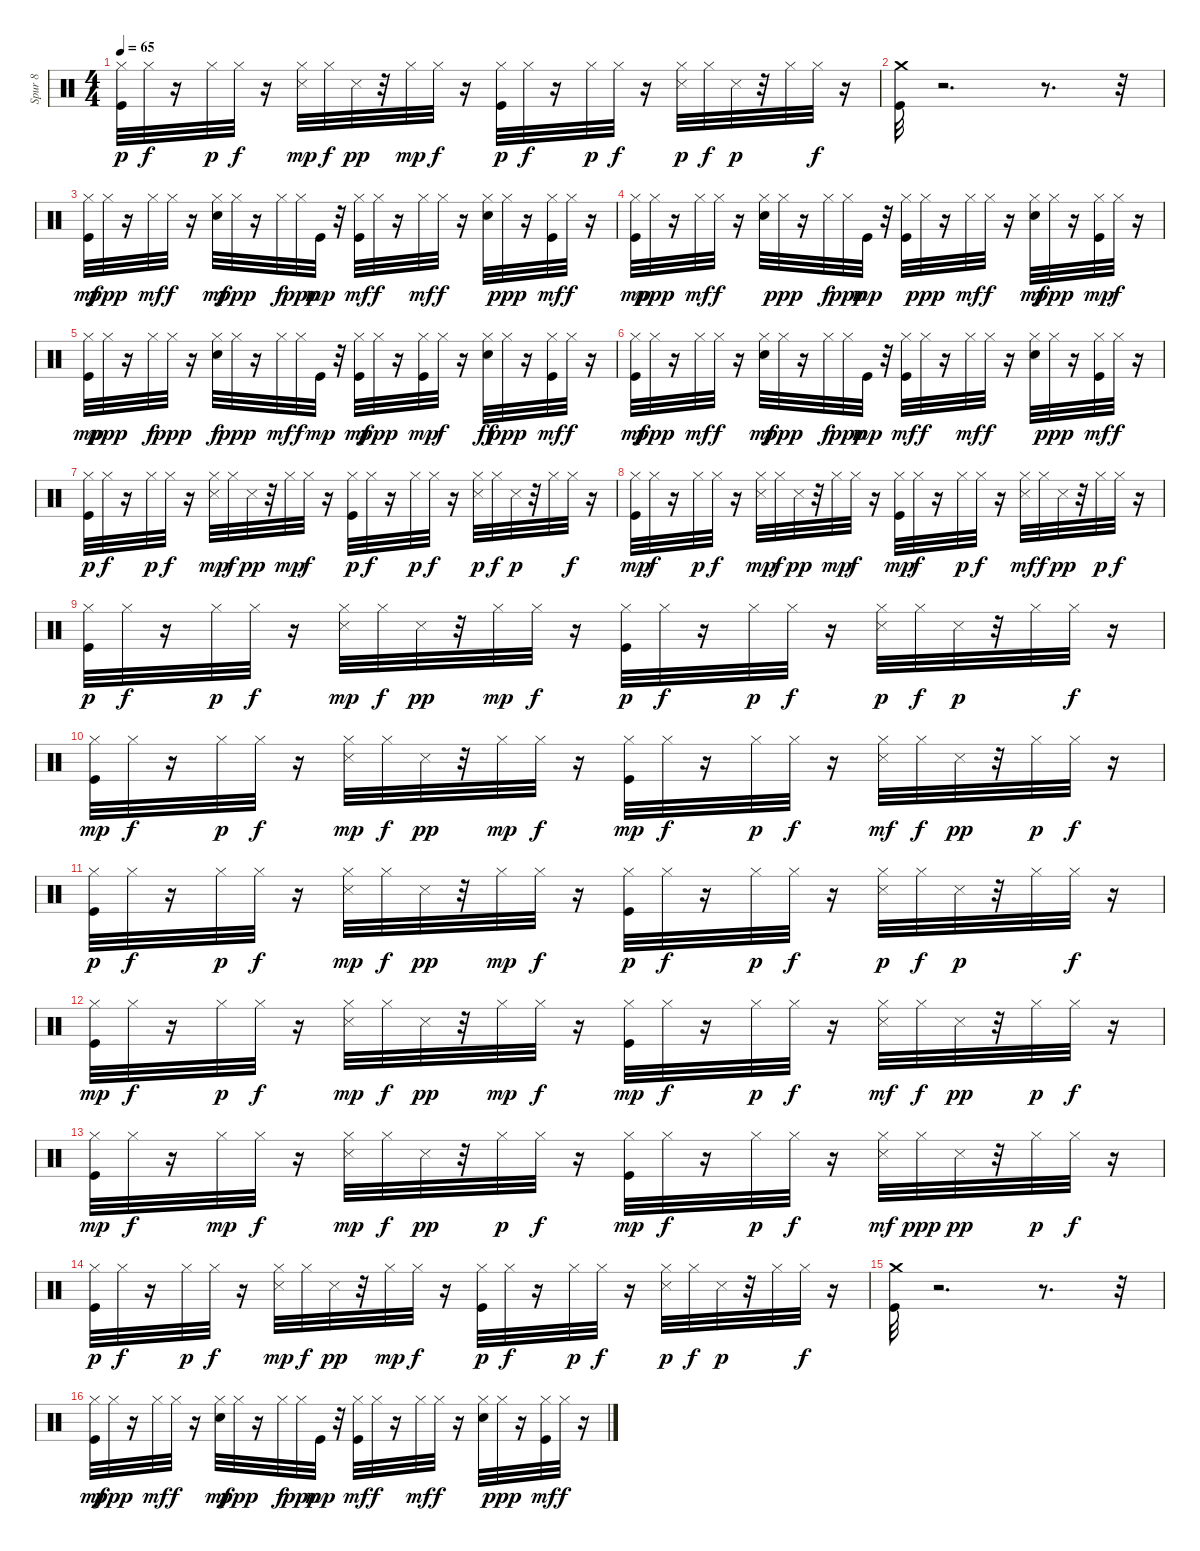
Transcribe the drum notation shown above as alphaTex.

\track ("Spur 8" "Spur 8") {instrument percussion}
\staff {score}
\articulation defaults
\ts (4 4)
\tempo 65
\clef neutral
\ks c
("Kick (hit)" "Hi-Hat (closed)").32{dy p} "Hi-Hat (closed)".32{dy f} r.16 "Hi-Hat (closed)".32{dy p} "Hi-Hat (closed)".32{dy f} r.16 ("Hi-Hat (closed)" "Snare (side stick) 3").32{dy mp} "Hi-Hat (closed)".32{dy f} "Snare (side stick) 3".32{dy pp} r.32 "Hi-Hat (closed)".32{dy mp} "Hi-Hat (closed)".32{dy f} r.16 ("Kick (hit)" "Hi-Hat (closed)").32{dy p} "Hi-Hat (closed)".32{dy f} r.16 "Hi-Hat (closed)".32{dy p} "Hi-Hat (closed)".32{dy f} r.16 ("Hi-Hat (closed)" "Snare (side stick) 3").32{dy p} "Hi-Hat (closed)".32{dy f} "Snare (side stick) 3".32{dy p} r.32 "Hi-Hat (closed)".32 "Hi-Hat (closed)".32{dy f} r.16 |
("Kick (hit)" "Crash medium (hit)").32 r.2{d} r.8{d} r.32 |
("Kick (hit)" "Hi-Hat (closed)").32{dy mf} "Hi-Hat (closed)".32{dy ppp} r.16 "Hi-Hat (closed)".32{dy mf} "Hi-Hat (closed)".32{dy f} r.16 ("Metronome (bell)" "Hi-Hat (closed)").32{dy mf} "Hi-Hat (closed)".32{dy ppp} r.16 "Hi-Hat (closed)".32{dy f} "Hi-Hat (closed)".32{dy ppp} "Kick (hit)".32{dy mp} r.32 ("Kick (hit)" "Hi-Hat (closed)").32{dy mf} "Hi-Hat (closed)".32{dy f} r.16 "Hi-Hat (closed)".32{dy mf} "Hi-Hat (closed)".32{dy f} r.16 ("Metronome (bell)" "Hi-Hat (closed)").32 "Hi-Hat (closed)".32{dy ppp} r.16 ("Kick (hit)" "Hi-Hat (closed)").32{dy mf} "Hi-Hat (closed)".32{dy f} r.16 |
("Kick (hit)" "Hi-Hat (closed)").32{dy mp} "Hi-Hat (closed)".32{dy ppp} r.16 "Hi-Hat (closed)".32{dy mf} "Hi-Hat (closed)".32{dy f} r.16 ("Metronome (bell)" "Hi-Hat (closed)").32 "Hi-Hat (closed)".32{dy ppp} r.16 "Hi-Hat (closed)".32{dy f} "Hi-Hat (closed)".32{dy ppp} "Kick (hit)".32{dy mp} r.32 ("Kick (hit)" "Hi-Hat (closed)").32 "Hi-Hat (closed)".32{dy ppp} r.16 "Hi-Hat (closed)".32{dy mf} "Hi-Hat (closed)".32{dy f} r.16 ("Metronome (bell)" "Hi-Hat (closed)").32{dy mf} "Hi-Hat (closed)".32{dy ppp} r.16 ("Kick (hit)" "Hi-Hat (closed)").32{dy mp} "Hi-Hat (closed)".32{dy f} r.16 |
("Kick (hit)" "Hi-Hat (closed)").32{dy mp} "Hi-Hat (closed)".32{dy ppp} r.16 "Hi-Hat (closed)".32{dy f} "Hi-Hat (closed)".32{dy ppp} r.16 ("Metronome (bell)" "Hi-Hat (closed)").32{dy f} "Hi-Hat (closed)".32{dy ppp} r.16 "Hi-Hat (closed)".32{dy mf} "Hi-Hat (closed)".32{dy f} "Kick (hit)".32{dy mp} r.32 ("Kick (hit)" "Hi-Hat (closed)").32{dy mf} "Hi-Hat (closed)".32{dy ppp} r.16 ("Kick (hit)" "Hi-Hat (closed)").32{dy mp} "Hi-Hat (closed)".32{dy f} r.16 ("Metronome (bell)" "Hi-Hat (closed)").32{dy ff} "Hi-Hat (closed)".32{dy ppp} r.16 ("Kick (hit)" "Hi-Hat (closed)").32{dy mf} "Hi-Hat (closed)".32{dy f} r.16 |
("Kick (hit)" "Hi-Hat (closed)").32{dy mf} "Hi-Hat (closed)".32{dy ppp} r.16 "Hi-Hat (closed)".32{dy mf} "Hi-Hat (closed)".32{dy f} r.16 ("Metronome (bell)" "Hi-Hat (closed)").32{dy mf} "Hi-Hat (closed)".32{dy ppp} r.16 "Hi-Hat (closed)".32{dy f} "Hi-Hat (closed)".32{dy ppp} "Kick (hit)".32{dy mp} r.32 ("Kick (hit)" "Hi-Hat (closed)").32{dy mf} "Hi-Hat (closed)".32{dy f} r.16 "Hi-Hat (closed)".32{dy mf} "Hi-Hat (closed)".32{dy f} r.16 ("Metronome (bell)" "Hi-Hat (closed)").32 "Hi-Hat (closed)".32{dy ppp} r.16 ("Kick (hit)" "Hi-Hat (closed)").32{dy mf} "Hi-Hat (closed)".32{dy f} r.16 |
("Kick (hit)" "Hi-Hat (closed)").32{dy p} "Hi-Hat (closed)".32{dy f} r.16 "Hi-Hat (closed)".32{dy p} "Hi-Hat (closed)".32{dy f} r.16 ("Hi-Hat (closed)" "Snare (side stick) 3").32{dy mp} "Hi-Hat (closed)".32{dy f} "Snare (side stick) 3".32{dy pp} r.32 "Hi-Hat (closed)".32{dy mp} "Hi-Hat (closed)".32{dy f} r.16 ("Kick (hit)" "Hi-Hat (closed)").32{dy p} "Hi-Hat (closed)".32{dy f} r.16 "Hi-Hat (closed)".32{dy p} "Hi-Hat (closed)".32{dy f} r.16 ("Hi-Hat (closed)" "Snare (side stick) 3").32{dy p} "Hi-Hat (closed)".32{dy f} "Snare (side stick) 3".32{dy p} r.32 "Hi-Hat (closed)".32 "Hi-Hat (closed)".32{dy f} r.16 |
("Kick (hit)" "Hi-Hat (closed)").32{dy mp} "Hi-Hat (closed)".32{dy f} r.16 "Hi-Hat (closed)".32{dy p} "Hi-Hat (closed)".32{dy f} r.16 ("Hi-Hat (closed)" "Snare (side stick) 3").32{dy mp} "Hi-Hat (closed)".32{dy f} "Snare (side stick) 3".32{dy pp} r.32 "Hi-Hat (closed)".32{dy mp} "Hi-Hat (closed)".32{dy f} r.16 ("Kick (hit)" "Hi-Hat (closed)").32{dy mp} "Hi-Hat (closed)".32{dy f} r.16 "Hi-Hat (closed)".32{dy p} "Hi-Hat (closed)".32{dy f} r.16 ("Hi-Hat (closed)" "Snare (side stick) 3").32{dy mf} "Hi-Hat (closed)".32{dy f} "Snare (side stick) 3".32{dy pp} r.32 "Hi-Hat (closed)".32{dy p} "Hi-Hat (closed)".32{dy f} r.16 |
("Kick (hit)" "Hi-Hat (closed)").32{dy p} "Hi-Hat (closed)".32{dy f} r.16 "Hi-Hat (closed)".32{dy p} "Hi-Hat (closed)".32{dy f} r.16 ("Hi-Hat (closed)" "Snare (side stick) 3").32{dy mp} "Hi-Hat (closed)".32{dy f} "Snare (side stick) 3".32{dy pp} r.32 "Hi-Hat (closed)".32{dy mp} "Hi-Hat (closed)".32{dy f} r.16 ("Kick (hit)" "Hi-Hat (closed)").32{dy p} "Hi-Hat (closed)".32{dy f} r.16 "Hi-Hat (closed)".32{dy p} "Hi-Hat (closed)".32{dy f} r.16 ("Hi-Hat (closed)" "Snare (side stick) 3").32{dy p} "Hi-Hat (closed)".32{dy f} "Snare (side stick) 3".32{dy p} r.32 "Hi-Hat (closed)".32 "Hi-Hat (closed)".32{dy f} r.16 |
("Kick (hit)" "Hi-Hat (closed)").32{dy mp} "Hi-Hat (closed)".32{dy f} r.16 "Hi-Hat (closed)".32{dy p} "Hi-Hat (closed)".32{dy f} r.16 ("Hi-Hat (closed)" "Snare (side stick) 3").32{dy mp} "Hi-Hat (closed)".32{dy f} "Snare (side stick) 3".32{dy pp} r.32 "Hi-Hat (closed)".32{dy mp} "Hi-Hat (closed)".32{dy f} r.16 ("Kick (hit)" "Hi-Hat (closed)").32{dy mp} "Hi-Hat (closed)".32{dy f} r.16 "Hi-Hat (closed)".32{dy p} "Hi-Hat (closed)".32{dy f} r.16 ("Hi-Hat (closed)" "Snare (side stick) 3").32{dy mf} "Hi-Hat (closed)".32{dy f} "Snare (side stick) 3".32{dy pp} r.32 "Hi-Hat (closed)".32{dy p} "Hi-Hat (closed)".32{dy f} r.16 |
("Kick (hit)" "Hi-Hat (closed)").32{dy p} "Hi-Hat (closed)".32{dy f} r.16 "Hi-Hat (closed)".32{dy p} "Hi-Hat (closed)".32{dy f} r.16 ("Hi-Hat (closed)" "Snare (side stick) 3").32{dy mp} "Hi-Hat (closed)".32{dy f} "Snare (side stick) 3".32{dy pp} r.32 "Hi-Hat (closed)".32{dy mp} "Hi-Hat (closed)".32{dy f} r.16 ("Kick (hit)" "Hi-Hat (closed)").32{dy p} "Hi-Hat (closed)".32{dy f} r.16 "Hi-Hat (closed)".32{dy p} "Hi-Hat (closed)".32{dy f} r.16 ("Hi-Hat (closed)" "Snare (side stick) 3").32{dy p} "Hi-Hat (closed)".32{dy f} "Snare (side stick) 3".32{dy p} r.32 "Hi-Hat (closed)".32 "Hi-Hat (closed)".32{dy f} r.16 |
("Kick (hit)" "Hi-Hat (closed)").32{dy mp} "Hi-Hat (closed)".32{dy f} r.16 "Hi-Hat (closed)".32{dy p} "Hi-Hat (closed)".32{dy f} r.16 ("Hi-Hat (closed)" "Snare (side stick) 3").32{dy mp} "Hi-Hat (closed)".32{dy f} "Snare (side stick) 3".32{dy pp} r.32 "Hi-Hat (closed)".32{dy mp} "Hi-Hat (closed)".32{dy f} r.16 ("Kick (hit)" "Hi-Hat (closed)").32{dy mp} "Hi-Hat (closed)".32{dy f} r.16 "Hi-Hat (closed)".32{dy p} "Hi-Hat (closed)".32{dy f} r.16 ("Hi-Hat (closed)" "Snare (side stick) 3").32{dy mf} "Hi-Hat (closed)".32{dy f} "Snare (side stick) 3".32{dy pp} r.32 "Hi-Hat (closed)".32{dy p} "Hi-Hat (closed)".32{dy f} r.16 |
("Kick (hit)" "Hi-Hat (closed)").32{dy mp} "Hi-Hat (closed)".32{dy f} r.16 "Hi-Hat (closed)".32{dy mp} "Hi-Hat (closed)".32{dy f} r.16 ("Hi-Hat (closed)" "Snare (side stick) 3").32{dy mp} "Hi-Hat (closed)".32{dy f} "Snare (side stick) 3".32{dy pp} r.32 "Hi-Hat (closed)".32{dy p} "Hi-Hat (closed)".32{dy f} r.16 ("Kick (hit)" "Hi-Hat (closed)").32{dy mp} "Hi-Hat (closed)".32{dy f} r.16 "Hi-Hat (closed)".32{dy p} "Hi-Hat (closed)".32{dy f} r.16 ("Hi-Hat (closed)" "Snare (side stick) 3").32{dy mf} "Hi-Hat (closed)".32{dy ppp} "Snare (side stick) 3".32{dy pp} r.32 "Hi-Hat (closed)".32{dy p} "Hi-Hat (closed)".32{dy f} r.16 |
("Kick (hit)" "Hi-Hat (closed)").32{dy p} "Hi-Hat (closed)".32{dy f} r.16 "Hi-Hat (closed)".32{dy p} "Hi-Hat (closed)".32{dy f} r.16 ("Hi-Hat (closed)" "Snare (side stick) 3").32{dy mp} "Hi-Hat (closed)".32{dy f} "Snare (side stick) 3".32{dy pp} r.32 "Hi-Hat (closed)".32{dy mp} "Hi-Hat (closed)".32{dy f} r.16 ("Kick (hit)" "Hi-Hat (closed)").32{dy p} "Hi-Hat (closed)".32{dy f} r.16 "Hi-Hat (closed)".32{dy p} "Hi-Hat (closed)".32{dy f} r.16 ("Hi-Hat (closed)" "Snare (side stick) 3").32{dy p} "Hi-Hat (closed)".32{dy f} "Snare (side stick) 3".32{dy p} r.32 "Hi-Hat (closed)".32 "Hi-Hat (closed)".32{dy f} r.16 |
("Kick (hit)" "Crash medium (hit)").32 r.2{d} r.8{d} r.32 |
("Kick (hit)" "Hi-Hat (closed)").32{dy mf} "Hi-Hat (closed)".32{dy ppp} r.16 "Hi-Hat (closed)".32{dy mf} "Hi-Hat (closed)".32{dy f} r.16 ("Metronome (bell)" "Hi-Hat (closed)").32{dy mf} "Hi-Hat (closed)".32{dy ppp} r.16 "Hi-Hat (closed)".32{dy f} "Hi-Hat (closed)".32{dy ppp} "Kick (hit)".32{dy mp} r.32 ("Kick (hit)" "Hi-Hat (closed)").32{dy mf} "Hi-Hat (closed)".32{dy f} r.16 "Hi-Hat (closed)".32{dy mf} "Hi-Hat (closed)".32{dy f} r.16 ("Metronome (bell)" "Hi-Hat (closed)").32 "Hi-Hat (closed)".32{dy ppp} r.16 ("Kick (hit)" "Hi-Hat (closed)").32{dy mf} "Hi-Hat (closed)".32{dy f} r.16
